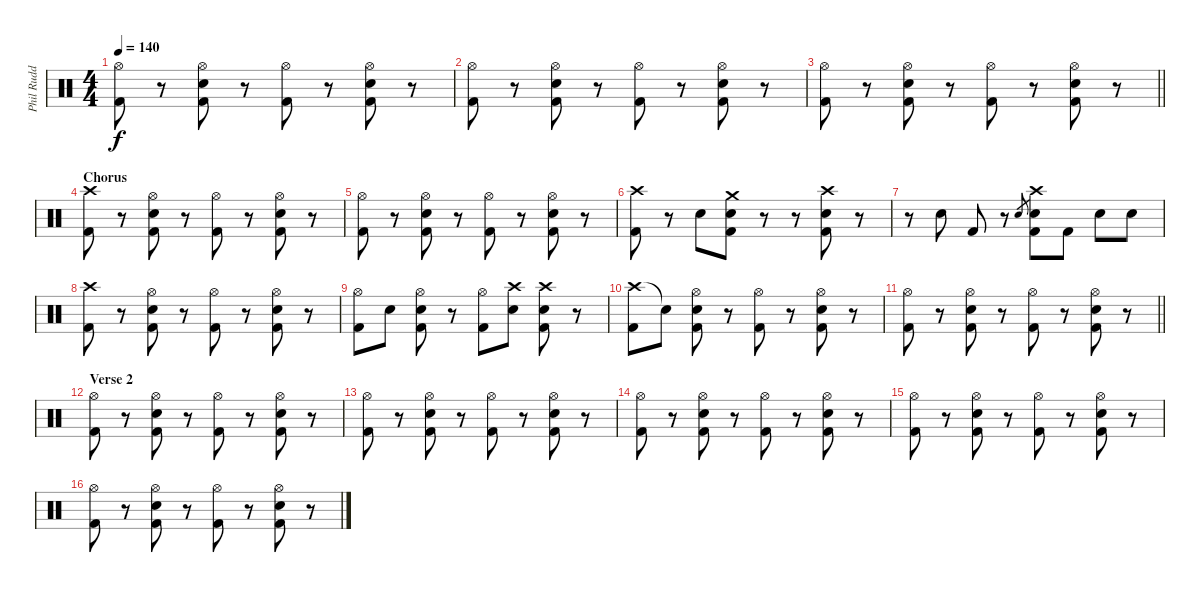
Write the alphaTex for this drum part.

\track ("Phil Rudd" "Phil Rudd") {instrument percussion}
\staff {score}
\articulation defaults
\ts (4 4)
\tempo 140
\clef neutral
\ks c
("Hi-Hat (open)" "Kick (hit) 2").8{dy f} r.8 ("Hi-Hat (open)" "Electric Snare (hit)" "Kick (hit) 2").8 r.8 ("Hi-Hat (open)" "Kick (hit) 2").8 r.8 ("Hi-Hat (open)" "Electric Snare (hit)" "Kick (hit) 2").8 r.8 |
("Hi-Hat (open)" "Kick (hit) 2").8 r.8 ("Hi-Hat (open)" "Electric Snare (hit)" "Kick (hit) 2").8 r.8 ("Hi-Hat (open)" "Kick (hit) 2").8 r.8 ("Hi-Hat (open)" "Electric Snare (hit)" "Kick (hit) 2").8 r.8 |
\barLineRight lightlight
("Hi-Hat (open)" "Kick (hit) 2").8 r.8 ("Hi-Hat (open)" "Electric Snare (hit)" "Kick (hit) 2").8 r.8 ("Hi-Hat (open)" "Kick (hit) 2").8 r.8 ("Hi-Hat (open)" "Electric Snare (hit)" "Kick (hit) 2").8 r.8 |
\section ("" "Chorus")
("Crash high (hit)" "Kick (hit) 2").8 r.8 ("Hi-Hat (open)" "Electric Snare (hit)" "Kick (hit) 2").8 r.8 ("Hi-Hat (open)" "Kick (hit) 2").8 r.8 ("Hi-Hat (open)" "Electric Snare (hit)" "Kick (hit) 2").8 r.8 |
("Hi-Hat (open)" "Kick (hit) 2").8 r.8 ("Hi-Hat (open)" "Electric Snare (hit)" "Kick (hit) 2").8 r.8 ("Hi-Hat (open)" "Kick (hit) 2").8 r.8 ("Hi-Hat (open)" "Electric Snare (hit)" "Kick (hit) 2").8 r.8 |
("Crash high (hit)" "Kick (hit) 2").8 r.8 "Electric Snare (hit)".8 ("Crash medium (hit)" "Electric Snare (hit)" "Kick (hit) 2").8 r.8 r.8 ("Crash high (hit)" "Electric Snare (hit)" "Kick (hit) 2").8 r.8 |
r.8 "Electric Snare (hit)".8 "Kick (hit) 2".8 r.8 "Electric Snare (hit)".8{gr} ("Crash high (hit)" "Electric Snare (hit)" "Kick (hit) 2").8 "Kick (hit) 2".8 "Electric Snare (hit)".8 "Electric Snare (hit)".8 |
("Crash high (hit)" "Kick (hit) 2").8 r.8 ("Hi-Hat (open)" "Electric Snare (hit)" "Kick (hit) 2").8 r.8 ("Hi-Hat (open)" "Kick (hit) 2").8 r.8 ("Hi-Hat (open)" "Electric Snare (hit)" "Kick (hit) 2").8 r.8 |
("Hi-Hat (open)" "Kick (hit) 2").8 "Electric Snare (hit)".8 ("Hi-Hat (open)" "Electric Snare (hit)" "Kick (hit) 2").8 r.8 ("Hi-Hat (open)" "Kick (hit) 2").8 ("Crash high (hit)" "Electric Snare (hit)").8 ("Crash high (hit)" "Electric Snare (hit)" "Kick (hit) 2").8 r.8 |
("Crash high (hit)" "Kick (hit) 2").8 "Snare (hit)"{t}.8 ("Hi-Hat (open)" "Electric Snare (hit)" "Kick (hit) 2").8 r.8 ("Hi-Hat (open)" "Kick (hit) 2").8 r.8 ("Hi-Hat (open)" "Electric Snare (hit)" "Kick (hit) 2").8 r.8 |
\barLineRight lightlight
("Hi-Hat (open)" "Kick (hit) 2").8 r.8 ("Hi-Hat (open)" "Electric Snare (hit)" "Kick (hit) 2").8 r.8 ("Hi-Hat (open)" "Kick (hit) 2").8 r.8 ("Hi-Hat (open)" "Electric Snare (hit)" "Kick (hit) 2").8 r.8 |
\section ("" "Verse 2")
("Hi-Hat (open)" "Kick (hit) 2").8 r.8 ("Hi-Hat (open)" "Electric Snare (hit)" "Kick (hit) 2").8 r.8 ("Hi-Hat (open)" "Kick (hit) 2").8 r.8 ("Hi-Hat (open)" "Electric Snare (hit)" "Kick (hit) 2").8 r.8 |
("Hi-Hat (open)" "Kick (hit) 2").8 r.8 ("Hi-Hat (open)" "Electric Snare (hit)" "Kick (hit) 2").8 r.8 ("Hi-Hat (open)" "Kick (hit) 2").8 r.8 ("Hi-Hat (open)" "Electric Snare (hit)" "Kick (hit) 2").8 r.8 |
("Hi-Hat (open)" "Kick (hit) 2").8 r.8 ("Hi-Hat (open)" "Electric Snare (hit)" "Kick (hit) 2").8 r.8 ("Hi-Hat (open)" "Kick (hit) 2").8 r.8 ("Hi-Hat (open)" "Electric Snare (hit)" "Kick (hit) 2").8 r.8 |
("Hi-Hat (open)" "Kick (hit) 2").8 r.8 ("Hi-Hat (open)" "Electric Snare (hit)" "Kick (hit) 2").8 r.8 ("Hi-Hat (open)" "Kick (hit) 2").8 r.8 ("Hi-Hat (open)" "Electric Snare (hit)" "Kick (hit) 2").8 r.8 |
("Hi-Hat (open)" "Kick (hit) 2").8 r.8 ("Hi-Hat (open)" "Electric Snare (hit)" "Kick (hit) 2").8 r.8 ("Hi-Hat (open)" "Kick (hit) 2").8 r.8 ("Hi-Hat (open)" "Electric Snare (hit)" "Kick (hit) 2").8 r.8
